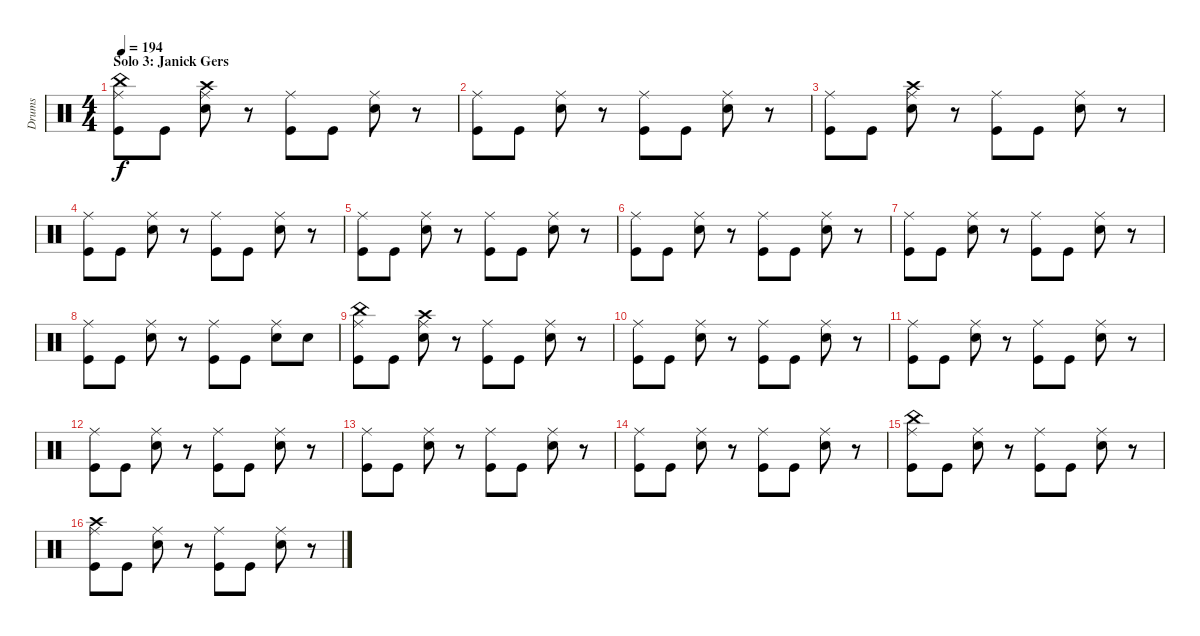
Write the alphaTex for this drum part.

\track ("Drums" "Drums") {instrument percussion}
\staff {score}
\articulation defaults
\ts (4 4)
\section ("" "Solo 3: Janick Gers")
\tempo 194
\clef neutral
\ks aminor
("China (hit)" "Ride (middle)" "Kick (hit)").8{dy f} "Kick (hit)".8 ("Crash high (hit)" "Ride (middle)" "Snare (hit) 2").8 r.8 ("Ride (middle)" "Kick (hit)").8 "Kick (hit)".8 ("Ride (middle)" "Snare (hit) 2").8 r.8 |
("Ride (middle)" "Kick (hit)").8 "Kick (hit)".8 ("Ride (middle)" "Snare (hit) 2").8 r.8 ("Ride (middle)" "Kick (hit)").8 "Kick (hit)".8 ("Ride (middle)" "Snare (hit) 2").8 r.8 |
("Ride (middle)" "Kick (hit)").8 "Kick (hit)".8 ("Crash high (hit)" "Ride (middle)" "Snare (hit) 2").8 r.8 ("Ride (middle)" "Kick (hit)").8 "Kick (hit)".8 ("Ride (middle)" "Snare (hit) 2").8 r.8 |
("Ride (middle)" "Kick (hit)").8 "Kick (hit)".8 ("Ride (middle)" "Snare (hit) 2").8 r.8 ("Ride (middle)" "Kick (hit)").8 "Kick (hit)".8 ("Ride (middle)" "Snare (hit) 2").8 r.8 |
("Ride (middle)" "Kick (hit)").8 "Kick (hit)".8 ("Ride (middle)" "Snare (hit) 2").8 r.8 ("Ride (middle)" "Kick (hit)").8 "Kick (hit)".8 ("Ride (middle)" "Snare (hit) 2").8 r.8 |
("Ride (middle)" "Kick (hit)").8 "Kick (hit)".8 ("Ride (middle)" "Snare (hit) 2").8 r.8 ("Ride (middle)" "Kick (hit)").8 "Kick (hit)".8 ("Ride (middle)" "Snare (hit) 2").8 r.8 |
("Ride (middle)" "Kick (hit)").8 "Kick (hit)".8 ("Ride (middle)" "Snare (hit) 2").8 r.8 ("Ride (middle)" "Kick (hit)").8 "Kick (hit)".8 ("Ride (middle)" "Snare (hit) 2").8 r.8 |
("Ride (middle)" "Kick (hit)").8 "Kick (hit)".8 ("Ride (middle)" "Snare (hit) 2").8 r.8 ("Ride (middle)" "Kick (hit)").8 "Kick (hit)".8 ("Ride (middle)" "Snare (hit) 2").8 "Snare (hit) 2".8 |
("China (hit)" "Ride (middle)" "Kick (hit)").8 "Kick (hit)".8 ("Crash high (hit)" "Ride (middle)" "Snare (hit) 2").8 r.8 ("Ride (middle)" "Kick (hit)").8 "Kick (hit)".8 ("Ride (middle)" "Snare (hit) 2").8 r.8 |
("Ride (middle)" "Kick (hit)").8 "Kick (hit)".8 ("Ride (middle)" "Snare (hit) 2").8 r.8 ("Ride (middle)" "Kick (hit)").8 "Kick (hit)".8 ("Ride (middle)" "Snare (hit) 2").8 r.8 |
("Ride (middle)" "Kick (hit)").8 "Kick (hit)".8 ("Ride (middle)" "Snare (hit) 2").8 r.8 ("Ride (middle)" "Kick (hit)").8 "Kick (hit)".8 ("Ride (middle)" "Snare (hit) 2").8 r.8 |
("Ride (middle)" "Kick (hit)").8 "Kick (hit)".8 ("Ride (middle)" "Snare (hit) 2").8 r.8 ("Ride (middle)" "Kick (hit)").8 "Kick (hit)".8 ("Ride (middle)" "Snare (hit) 2").8 r.8 |
("Ride (middle)" "Kick (hit)").8 "Kick (hit)".8 ("Ride (middle)" "Snare (hit) 2").8 r.8 ("Ride (middle)" "Kick (hit)").8 "Kick (hit)".8 ("Ride (middle)" "Snare (hit) 2").8 r.8 |
("Ride (middle)" "Kick (hit)").8 "Kick (hit)".8 ("Ride (middle)" "Snare (hit) 2").8 r.8 ("Ride (middle)" "Kick (hit)").8 "Kick (hit)".8 ("Ride (middle)" "Snare (hit) 2").8 r.8 |
("China (hit)" "Ride (middle)" "Kick (hit)").8 "Kick (hit)".8 ("Ride (middle)" "Snare (hit) 2").8 r.8 ("Ride (middle)" "Kick (hit)").8 "Kick (hit)".8 ("Ride (middle)" "Snare (hit) 2").8 r.8 |
("Crash high (hit)" "Ride (middle)" "Kick (hit)").8 "Kick (hit)".8 ("Ride (middle)" "Snare (hit) 2").8 r.8 ("Ride (middle)" "Kick (hit)").8 "Kick (hit)".8 ("Ride (middle)" "Snare (hit) 2").8 r.8
